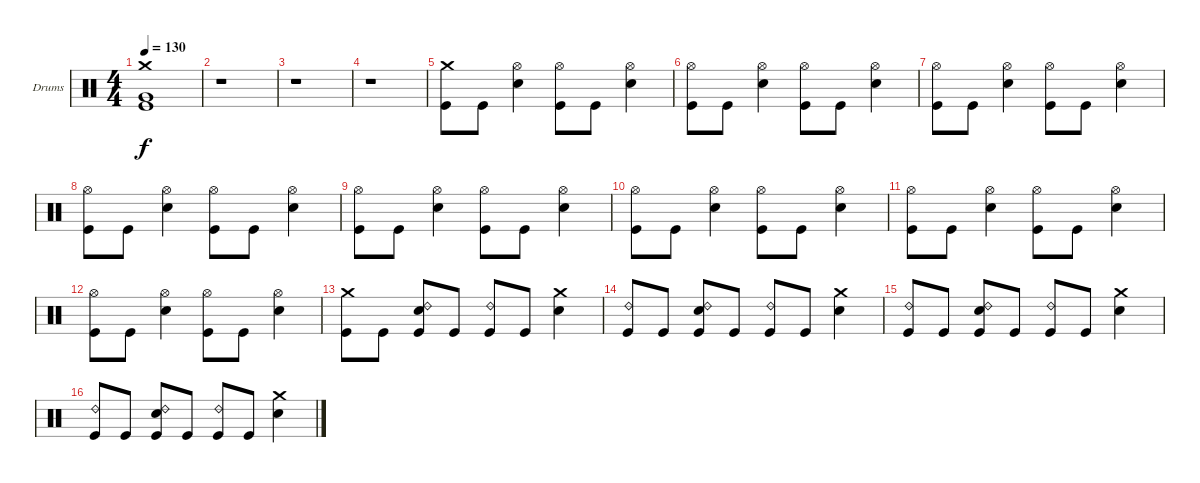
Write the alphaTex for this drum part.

\defaultSystemsLayout 4
\bracketExtendMode groupsimilarinstruments
\firstSystemTrackNameOrientation horizontal
\otherSystemsTrackNameOrientation horizontal
\track ("Drumkit" "Drums") {instrument percussion}
\staff {score}
\articulation defaults
\ts (4 4)
\tempo 130
\clef neutral
\scale
0.333333
\ks c
("Crash medium (hit)" "Very Low Tom (hit)" "Kick (hit)").1{dy f} |
\scale
0.333333 r.1 |
\scale
0.333333 r.1 |
\scale
0.333333 r.1 |
\scale
0.333333 ("Crash medium (hit)" "Kick (hit)").8 "Kick (hit)".8 ("Hi-Hat (open)" "Snare (hit) 2").4 ("Hi-Hat (open)" "Kick (hit)").8 "Kick (hit)".8 ("Hi-Hat (open)" "Snare (hit) 2").4 |
\scale
0.333333 ("Hi-Hat (open)" "Kick (hit)").8 "Kick (hit)".8 ("Hi-Hat (open)" "Snare (hit) 2").4 ("Hi-Hat (open)" "Kick (hit)").8 "Kick (hit)".8 ("Hi-Hat (open)" "Snare (hit) 2").4 |
\scale
0.333333 ("Hi-Hat (open)" "Kick (hit)").8 "Kick (hit)".8 ("Hi-Hat (open)" "Snare (hit) 2").4 ("Hi-Hat (open)" "Kick (hit)").8 "Kick (hit)".8 ("Hi-Hat (open)" "Snare (hit) 2").4 |
\scale
0.333333 ("Hi-Hat (open)" "Kick (hit)").8 "Kick (hit)".8 ("Hi-Hat (open)" "Snare (hit) 2").4 ("Hi-Hat (open)" "Kick (hit)").8 "Kick (hit)".8 ("Hi-Hat (open)" "Snare (hit) 2").4 |
\scale
0.333333 ("Hi-Hat (open)" "Kick (hit)").8 "Kick (hit)".8 ("Hi-Hat (open)" "Snare (hit) 2").4 ("Hi-Hat (open)" "Kick (hit)").8 "Kick (hit)".8 ("Hi-Hat (open)" "Snare (hit) 2").4 |
\scale
0.333333 ("Hi-Hat (open)" "Kick (hit)").8 "Kick (hit)".8 ("Hi-Hat (open)" "Snare (hit) 2").4 ("Hi-Hat (open)" "Kick (hit)").8 "Kick (hit)".8 ("Hi-Hat (open)" "Snare (hit) 2").4 |
\scale
0.333333 ("Hi-Hat (open)" "Kick (hit)").8 "Kick (hit)".8 ("Hi-Hat (open)" "Snare (hit) 2").4 ("Hi-Hat (open)" "Kick (hit)").8 "Kick (hit)".8 ("Hi-Hat (open)" "Snare (hit) 2").4 |
\scale
0.333333 ("Hi-Hat (open)" "Kick (hit)").8 "Kick (hit)".8 ("Hi-Hat (open)" "Snare (hit) 2").4 ("Hi-Hat (open)" "Kick (hit)").8 "Kick (hit)".8 ("Hi-Hat (open)" "Snare (hit) 2").4 |
\scale
0.333333 ("Crash medium (hit)" "Kick (hit)").8 "Kick (hit)".8 ("Ride (bell) 2" "Snare (hit) 2" "Kick (hit)").8 "Kick (hit)".8 ("Ride (bell) 2" "Kick (hit)").8 "Kick (hit)".8 ("Crash medium (hit)" "Snare (hit) 2").4 |
\scale
0.333333 ("Ride (bell) 2" "Kick (hit)").8 "Kick (hit)".8 ("Ride (bell) 2" "Snare (hit) 2" "Kick (hit)").8 "Kick (hit)".8 ("Ride (bell) 2" "Kick (hit)").8 "Kick (hit)".8 ("Crash medium (hit)" "Snare (hit) 2").4 |
\scale
0.333333 ("Ride (bell) 2" "Kick (hit)").8 "Kick (hit)".8 ("Ride (bell) 2" "Snare (hit) 2" "Kick (hit)").8 "Kick (hit)".8 ("Ride (bell) 2" "Kick (hit)").8 "Kick (hit)".8 ("Crash medium (hit)" "Snare (hit) 2").4 |
\scale
0.333333 ("Ride (bell) 2" "Kick (hit)").8 "Kick (hit)".8 ("Ride (bell) 2" "Snare (hit) 2" "Kick (hit)").8 "Kick (hit)".8 ("Ride (bell) 2" "Kick (hit)").8 "Kick (hit)".8 ("Crash medium (hit)" "Snare (hit) 2").4
